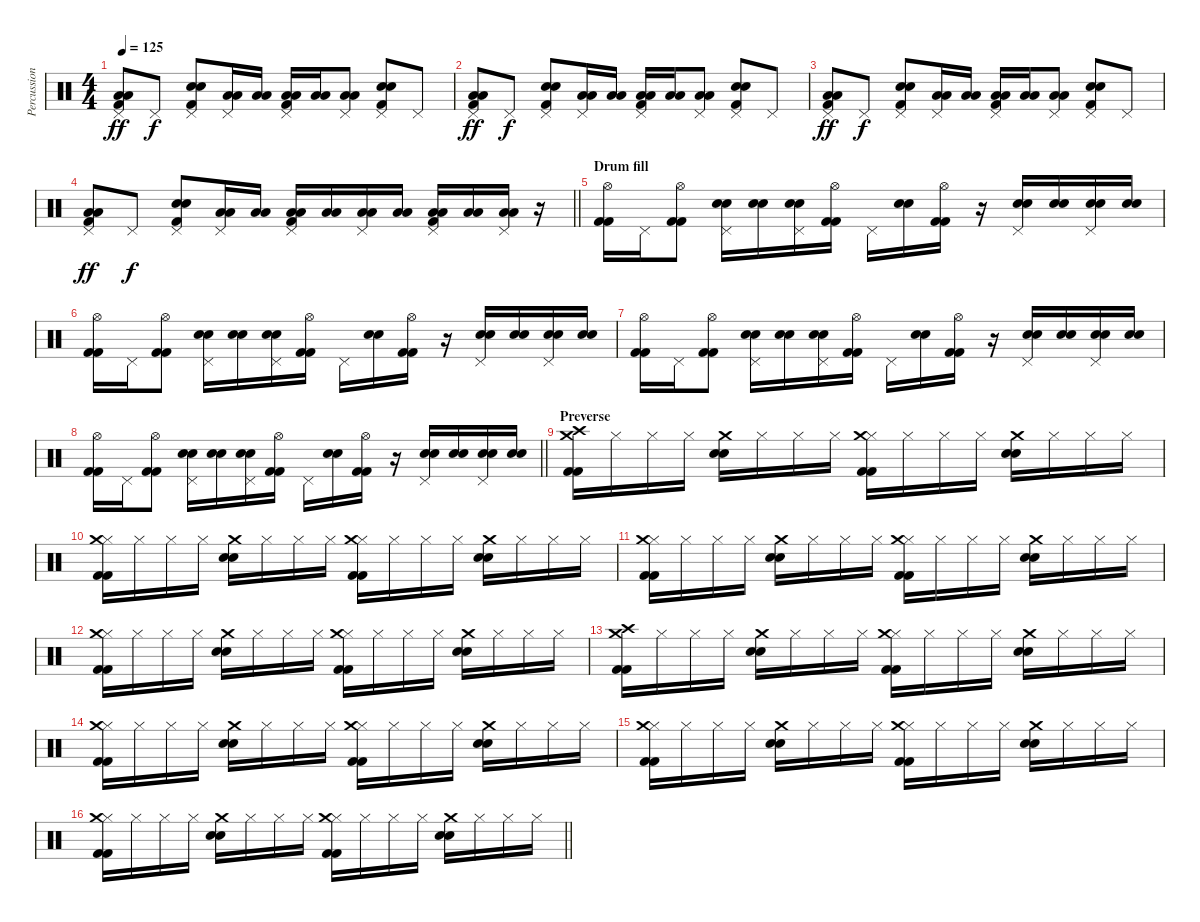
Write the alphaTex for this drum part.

\track ("Percussion" "Percussion") {instrument percussion}
\staff {score}
\articulation defaults
\ts (4 4)
\tempo 125
\clef neutral
\ks c
("Pedal Hi-Hat (hit)" "Low Floor Tom (hit)" "Low Floor Tom (hit)" "Kick (hit) 2").8{dy ff} "Pedal Hi-Hat (hit)".8{dy f} ("Pedal Hi-Hat (hit)" "Electric Snare (hit)" "Electric Snare (hit)" "Kick (hit) 2").8 ("Pedal Hi-Hat (hit)" "Low Floor Tom (hit)" "Low Floor Tom (hit)").16 ("Low Tom (hit)" "Low Tom (hit)").16 ("Pedal Hi-Hat (hit)" "Low Floor Tom (hit)" "Low Floor Tom (hit)" "Kick (hit) 2").16 ("Low Floor Tom (hit)" "Low Floor Tom (hit)").16 ("Pedal Hi-Hat (hit)" "Low Floor Tom (hit)" "Low Floor Tom (hit)").8 ("Pedal Hi-Hat (hit)" "Electric Snare (hit)" "Electric Snare (hit)" "Kick (hit) 2").8 "Pedal Hi-Hat (hit)".8 |
("Pedal Hi-Hat (hit)" "Low Floor Tom (hit)" "Low Floor Tom (hit)" "Kick (hit) 2").8{dy ff} "Pedal Hi-Hat (hit)".8{dy f} ("Pedal Hi-Hat (hit)" "Electric Snare (hit)" "Electric Snare (hit)" "Kick (hit) 2").8 ("Pedal Hi-Hat (hit)" "Low Floor Tom (hit)" "Low Floor Tom (hit)").16 ("Low Tom (hit)" "Low Tom (hit)").16 ("Pedal Hi-Hat (hit)" "Low Floor Tom (hit)" "Low Floor Tom (hit)" "Kick (hit) 2").16 ("Low Floor Tom (hit)" "Low Floor Tom (hit)").16 ("Pedal Hi-Hat (hit)" "Low Floor Tom (hit)" "Low Floor Tom (hit)").8 ("Pedal Hi-Hat (hit)" "Electric Snare (hit)" "Electric Snare (hit)" "Kick (hit) 2").8 "Pedal Hi-Hat (hit)".8 |
("Pedal Hi-Hat (hit)" "Low Floor Tom (hit)" "Low Floor Tom (hit)" "Kick (hit) 2").8{dy ff} "Pedal Hi-Hat (hit)".8{dy f} ("Pedal Hi-Hat (hit)" "Electric Snare (hit)" "Electric Snare (hit)" "Kick (hit) 2").8 ("Pedal Hi-Hat (hit)" "Low Floor Tom (hit)" "Low Floor Tom (hit)").16 ("Low Tom (hit)" "Low Tom (hit)").16 ("Pedal Hi-Hat (hit)" "Low Floor Tom (hit)" "Low Floor Tom (hit)" "Kick (hit) 2").16 ("Low Floor Tom (hit)" "Low Floor Tom (hit)").16 ("Pedal Hi-Hat (hit)" "Low Floor Tom (hit)" "Low Floor Tom (hit)").8 ("Pedal Hi-Hat (hit)" "Electric Snare (hit)" "Electric Snare (hit)" "Kick (hit) 2").8 "Pedal Hi-Hat (hit)".8 |
\barLineRight lightlight
("Pedal Hi-Hat (hit)" "Low Floor Tom (hit)" "Low Floor Tom (hit)" "Kick (hit) 2").8{dy ff} "Pedal Hi-Hat (hit)".8{dy f} ("Pedal Hi-Hat (hit)" "Electric Snare (hit)" "Electric Snare (hit)" "Kick (hit) 2").8 ("Pedal Hi-Hat (hit)" "Low Floor Tom (hit)" "Low Floor Tom (hit)").16 ("Low Tom (hit)" "Low Tom (hit)").16 ("Pedal Hi-Hat (hit)" "Low Floor Tom (hit)" "Low Floor Tom (hit)" "Kick (hit) 2").16 ("Low Floor Tom (hit)" "Low Floor Tom (hit)").16 ("Pedal Hi-Hat (hit)" "Low Floor Tom (hit)" "Low Floor Tom (hit)").16 ("Low Tom (hit)" "Low Tom (hit)").16 ("Pedal Hi-Hat (hit)" "Low Floor Tom (hit)" "Low Floor Tom (hit)" "Kick (hit) 2").16 ("Low Floor Tom (hit)" "Low Floor Tom (hit)").16 ("Pedal Hi-Hat (hit)" "Low Floor Tom (hit)" "Low Floor Tom (hit)").16 r.16 |
\section ("" "Drum fill")
("Hi-Hat (open)" "Kick (hit) 2" "Kick (hit) 2").16 "Pedal Hi-Hat (hit)".16 ("Hi-Hat (open)" "Kick (hit) 2" "Kick (hit) 2").8 ("Pedal Hi-Hat (hit)" "Electric Snare (hit)" "Electric Snare (hit)").16 ("Electric Snare (hit)" "Electric Snare (hit)").16 ("Pedal Hi-Hat (hit)" "Electric Snare (hit)" "Electric Snare (hit)").16 ("Hi-Hat (open)" "Kick (hit) 2" "Kick (hit) 2").16 "Pedal Hi-Hat (hit)".16 ("Electric Snare (hit)" "Electric Snare (hit)").16 ("Hi-Hat (open)" "Kick (hit) 2" "Kick (hit) 2").16 r.16 ("Pedal Hi-Hat (hit)" "Electric Snare (hit)" "Electric Snare (hit)").16 ("Electric Snare (hit)" "Electric Snare (hit)").16 ("Pedal Hi-Hat (hit)" "Electric Snare (hit)" "Electric Snare (hit)").16 ("Electric Snare (hit)" "Electric Snare (hit)").16 |
("Hi-Hat (open)" "Kick (hit) 2" "Kick (hit) 2").16 "Pedal Hi-Hat (hit)".16 ("Hi-Hat (open)" "Kick (hit) 2" "Kick (hit) 2").8 ("Pedal Hi-Hat (hit)" "Electric Snare (hit)" "Electric Snare (hit)").16 ("Electric Snare (hit)" "Electric Snare (hit)").16 ("Pedal Hi-Hat (hit)" "Electric Snare (hit)" "Electric Snare (hit)").16 ("Hi-Hat (open)" "Kick (hit) 2" "Kick (hit) 2").16 "Pedal Hi-Hat (hit)".16 ("Electric Snare (hit)" "Electric Snare (hit)").16 ("Hi-Hat (open)" "Kick (hit) 2" "Kick (hit) 2").16 r.16 ("Pedal Hi-Hat (hit)" "Electric Snare (hit)" "Electric Snare (hit)").16 ("Electric Snare (hit)" "Electric Snare (hit)").16 ("Pedal Hi-Hat (hit)" "Electric Snare (hit)" "Electric Snare (hit)").16 ("Electric Snare (hit)" "Electric Snare (hit)").16 |
("Hi-Hat (open)" "Kick (hit) 2" "Kick (hit) 2").16 "Pedal Hi-Hat (hit)".16 ("Hi-Hat (open)" "Kick (hit) 2" "Kick (hit) 2").8 ("Pedal Hi-Hat (hit)" "Electric Snare (hit)" "Electric Snare (hit)").16 ("Electric Snare (hit)" "Electric Snare (hit)").16 ("Pedal Hi-Hat (hit)" "Electric Snare (hit)" "Electric Snare (hit)").16 ("Hi-Hat (open)" "Kick (hit) 2" "Kick (hit) 2").16 "Pedal Hi-Hat (hit)".16 ("Electric Snare (hit)" "Electric Snare (hit)").16 ("Hi-Hat (open)" "Kick (hit) 2" "Kick (hit) 2").16 r.16 ("Pedal Hi-Hat (hit)" "Electric Snare (hit)" "Electric Snare (hit)").16 ("Electric Snare (hit)" "Electric Snare (hit)").16 ("Pedal Hi-Hat (hit)" "Electric Snare (hit)" "Electric Snare (hit)").16 ("Electric Snare (hit)" "Electric Snare (hit)").16 |
\barLineRight lightlight
("Hi-Hat (open)" "Kick (hit) 2" "Kick (hit) 2").16 "Pedal Hi-Hat (hit)".16 ("Hi-Hat (open)" "Kick (hit) 2" "Kick (hit) 2").8 ("Pedal Hi-Hat (hit)" "Electric Snare (hit)" "Electric Snare (hit)").16 ("Electric Snare (hit)" "Electric Snare (hit)").16 ("Pedal Hi-Hat (hit)" "Electric Snare (hit)" "Electric Snare (hit)").16 ("Hi-Hat (open)" "Kick (hit) 2" "Kick (hit) 2").16 "Pedal Hi-Hat (hit)".16 ("Electric Snare (hit)" "Electric Snare (hit)").16 ("Hi-Hat (open)" "Kick (hit) 2" "Kick (hit) 2").16 r.16 ("Pedal Hi-Hat (hit)" "Electric Snare (hit)" "Electric Snare (hit)").16 ("Electric Snare (hit)" "Electric Snare (hit)").16 ("Pedal Hi-Hat (hit)" "Electric Snare (hit)" "Electric Snare (hit)").16 ("Electric Snare (hit)" "Electric Snare (hit)").16 |
\section ("" "Preverse")
("Crash high (hit)" "Crash medium (hit)" "Kick (hit) 2" "Kick (hit) 2").16 "Hi-Hat (closed)".16 "Hi-Hat (closed)".16 "Hi-Hat (closed)".16 ("Crash medium (hit)" "Electric Snare (hit)" "Electric Snare (hit)").16 "Hi-Hat (closed)".16 "Hi-Hat (closed)".16 "Hi-Hat (closed)".16 ("Hi-Hat (closed)" "Crash medium (hit)" "Kick (hit) 2" "Kick (hit) 2").16 "Hi-Hat (closed)".16 "Hi-Hat (closed)".16 "Hi-Hat (closed)".16 ("Crash medium (hit)" "Electric Snare (hit)" "Electric Snare (hit)").16 "Hi-Hat (closed)".16 "Hi-Hat (closed)".16 "Hi-Hat (closed)".16 |
("Hi-Hat (closed)" "Crash medium (hit)" "Kick (hit) 2" "Kick (hit) 2").16 "Hi-Hat (closed)".16 "Hi-Hat (closed)".16 "Hi-Hat (closed)".16 ("Crash medium (hit)" "Electric Snare (hit)" "Electric Snare (hit)").16 "Hi-Hat (closed)".16 "Hi-Hat (closed)".16 "Hi-Hat (closed)".16 ("Hi-Hat (closed)" "Crash medium (hit)" "Kick (hit) 2" "Kick (hit) 2").16 "Hi-Hat (closed)".16 "Hi-Hat (closed)".16 "Hi-Hat (closed)".16 ("Crash medium (hit)" "Electric Snare (hit)" "Electric Snare (hit)").16 "Hi-Hat (closed)".16 "Hi-Hat (closed)".16 "Hi-Hat (closed)".16 |
("Hi-Hat (closed)" "Crash medium (hit)" "Kick (hit) 2" "Kick (hit) 2").16 "Hi-Hat (closed)".16 "Hi-Hat (closed)".16 "Hi-Hat (closed)".16 ("Crash medium (hit)" "Electric Snare (hit)" "Electric Snare (hit)").16 "Hi-Hat (closed)".16 "Hi-Hat (closed)".16 "Hi-Hat (closed)".16 ("Hi-Hat (closed)" "Crash medium (hit)" "Kick (hit) 2" "Kick (hit) 2").16 "Hi-Hat (closed)".16 "Hi-Hat (closed)".16 "Hi-Hat (closed)".16 ("Crash medium (hit)" "Electric Snare (hit)" "Electric Snare (hit)").16 "Hi-Hat (closed)".16 "Hi-Hat (closed)".16 "Hi-Hat (closed)".16 |
("Hi-Hat (closed)" "Crash medium (hit)" "Kick (hit) 2" "Kick (hit) 2").16 "Hi-Hat (closed)".16 "Hi-Hat (closed)".16 "Hi-Hat (closed)".16 ("Crash medium (hit)" "Electric Snare (hit)" "Electric Snare (hit)").16 "Hi-Hat (closed)".16 "Hi-Hat (closed)".16 "Hi-Hat (closed)".16 ("Hi-Hat (closed)" "Crash medium (hit)" "Kick (hit) 2" "Kick (hit) 2").16 "Hi-Hat (closed)".16 "Hi-Hat (closed)".16 "Hi-Hat (closed)".16 ("Crash medium (hit)" "Electric Snare (hit)" "Electric Snare (hit)").16 "Hi-Hat (closed)".16 "Hi-Hat (closed)".16 "Hi-Hat (closed)".16 |
("Crash high (hit)" "Crash medium (hit)" "Kick (hit) 2" "Kick (hit) 2").16 "Hi-Hat (closed)".16 "Hi-Hat (closed)".16 "Hi-Hat (closed)".16 ("Crash medium (hit)" "Electric Snare (hit)" "Electric Snare (hit)").16 "Hi-Hat (closed)".16 "Hi-Hat (closed)".16 "Hi-Hat (closed)".16 ("Hi-Hat (closed)" "Crash medium (hit)" "Kick (hit) 2" "Kick (hit) 2").16 "Hi-Hat (closed)".16 "Hi-Hat (closed)".16 "Hi-Hat (closed)".16 ("Crash medium (hit)" "Electric Snare (hit)" "Electric Snare (hit)").16 "Hi-Hat (closed)".16 "Hi-Hat (closed)".16 "Hi-Hat (closed)".16 |
("Hi-Hat (closed)" "Crash medium (hit)" "Kick (hit) 2" "Kick (hit) 2").16 "Hi-Hat (closed)".16 "Hi-Hat (closed)".16 "Hi-Hat (closed)".16 ("Crash medium (hit)" "Electric Snare (hit)" "Electric Snare (hit)").16 "Hi-Hat (closed)".16 "Hi-Hat (closed)".16 "Hi-Hat (closed)".16 ("Hi-Hat (closed)" "Crash medium (hit)" "Kick (hit) 2" "Kick (hit) 2").16 "Hi-Hat (closed)".16 "Hi-Hat (closed)".16 "Hi-Hat (closed)".16 ("Crash medium (hit)" "Electric Snare (hit)" "Electric Snare (hit)").16 "Hi-Hat (closed)".16 "Hi-Hat (closed)".16 "Hi-Hat (closed)".16 |
("Hi-Hat (closed)" "Crash medium (hit)" "Kick (hit) 2" "Kick (hit) 2").16 "Hi-Hat (closed)".16 "Hi-Hat (closed)".16 "Hi-Hat (closed)".16 ("Crash medium (hit)" "Electric Snare (hit)" "Electric Snare (hit)").16 "Hi-Hat (closed)".16 "Hi-Hat (closed)".16 "Hi-Hat (closed)".16 ("Hi-Hat (closed)" "Crash medium (hit)" "Kick (hit) 2" "Kick (hit) 2").16 "Hi-Hat (closed)".16 "Hi-Hat (closed)".16 "Hi-Hat (closed)".16 ("Crash medium (hit)" "Electric Snare (hit)" "Electric Snare (hit)").16 "Hi-Hat (closed)".16 "Hi-Hat (closed)".16 "Hi-Hat (closed)".16 |
\barLineRight lightlight
("Hi-Hat (closed)" "Crash medium (hit)" "Kick (hit) 2" "Kick (hit) 2").16 "Hi-Hat (closed)".16 "Hi-Hat (closed)".16 "Hi-Hat (closed)".16 ("Crash medium (hit)" "Electric Snare (hit)" "Electric Snare (hit)").16 "Hi-Hat (closed)".16 "Hi-Hat (closed)".16 "Hi-Hat (closed)".16 ("Hi-Hat (closed)" "Crash medium (hit)" "Kick (hit) 2" "Kick (hit) 2").16 "Hi-Hat (closed)".16 "Hi-Hat (closed)".16 "Hi-Hat (closed)".16 ("Crash medium (hit)" "Electric Snare (hit)" "Electric Snare (hit)").16 "Hi-Hat (closed)".16 "Hi-Hat (closed)".16 "Hi-Hat (closed)".16
